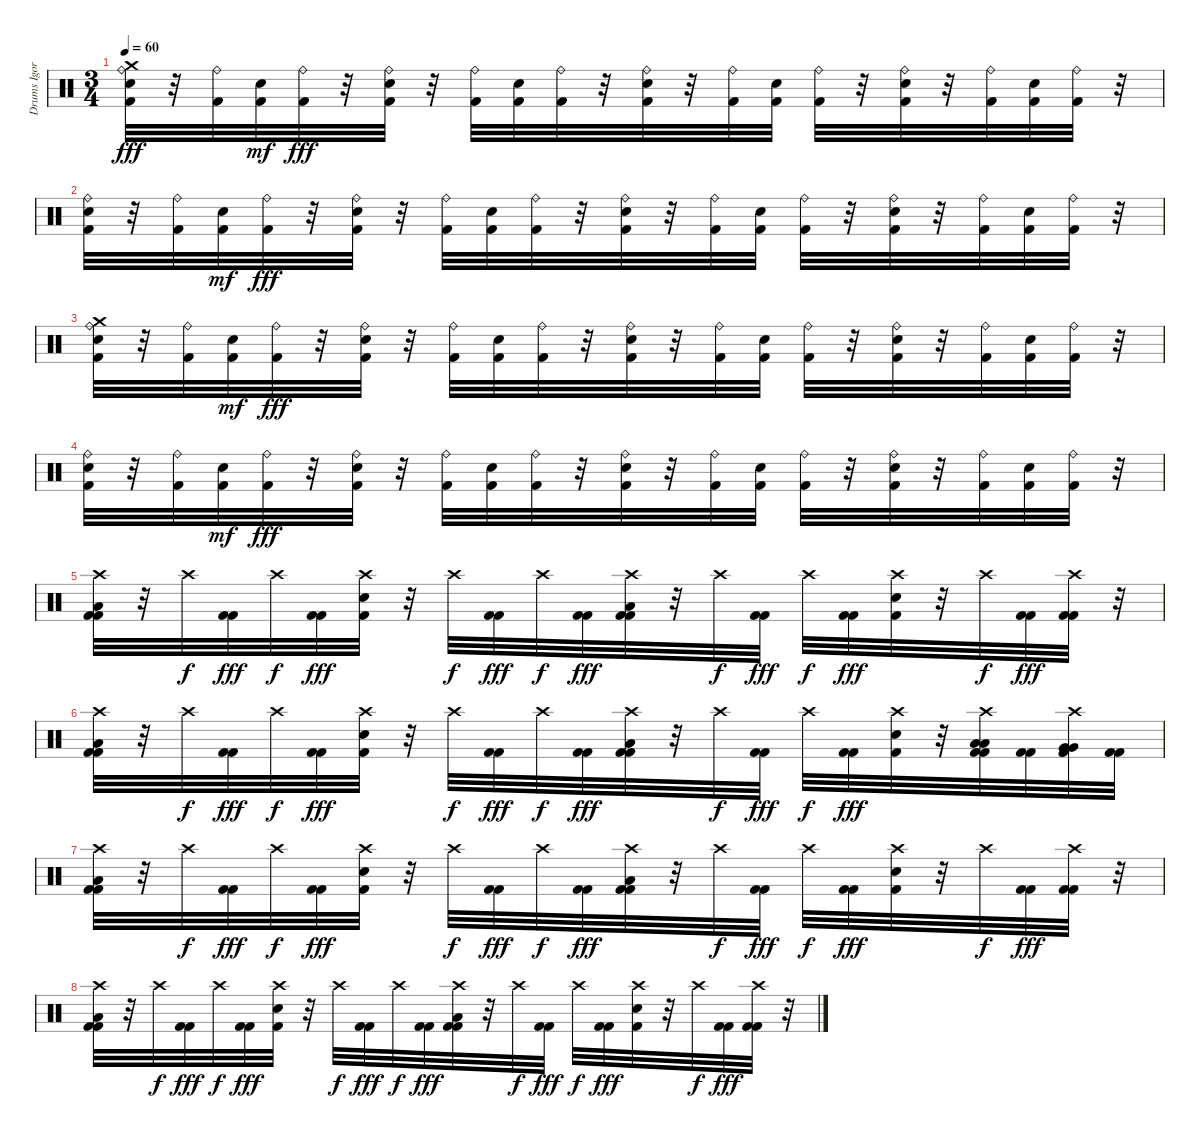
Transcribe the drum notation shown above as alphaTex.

\track ("Drums Igor" "Drums Igor") {instrument percussion}
\staff {score}
\articulation defaults
\ts (3 4)
\tempo 60
\clef neutral
\ks c
("Ride (bell)" "Crash medium (hit)" "Electric Snare (hit)" "Kick (hit) 2").32{dy fff} r.32 ("Ride (bell)" "Kick (hit) 2").32 ("Electric Snare (hit)" "Kick (hit) 2").32{dy mf} ("Ride (bell)" "Kick (hit) 2").32{dy fff} r.32 ("Ride (bell)" "Electric Snare (hit)" "Kick (hit) 2").32 r.32 ("Ride (bell)" "Kick (hit) 2").32 ("Electric Snare (hit)" "Kick (hit) 2").32 ("Ride (bell)" "Kick (hit) 2").32 r.32 ("Ride (bell)" "Electric Snare (hit)" "Kick (hit) 2").32 r.32 ("Ride (bell)" "Kick (hit) 2").32 ("Electric Snare (hit)" "Kick (hit) 2").32 ("Ride (bell)" "Kick (hit) 2").32 r.32 ("Ride (bell)" "Electric Snare (hit)" "Kick (hit) 2").32 r.32 ("Ride (bell)" "Kick (hit) 2").32 ("Electric Snare (hit)" "Kick (hit) 2").32 ("Ride (bell)" "Kick (hit) 2").32 r.32 |
("Ride (bell)" "Electric Snare (hit)" "Kick (hit) 2").32 r.32 ("Ride (bell)" "Kick (hit) 2").32 ("Electric Snare (hit)" "Kick (hit) 2").32{dy mf} ("Ride (bell)" "Kick (hit) 2").32{dy fff} r.32 ("Ride (bell)" "Electric Snare (hit)" "Kick (hit) 2").32 r.32 ("Ride (bell)" "Kick (hit) 2").32 ("Electric Snare (hit)" "Kick (hit) 2").32 ("Ride (bell)" "Kick (hit) 2").32 r.32 ("Ride (bell)" "Electric Snare (hit)" "Kick (hit) 2").32 r.32 ("Ride (bell)" "Kick (hit) 2").32 ("Electric Snare (hit)" "Kick (hit) 2").32 ("Ride (bell)" "Kick (hit) 2").32 r.32 ("Ride (bell)" "Electric Snare (hit)" "Kick (hit) 2").32 r.32 ("Ride (bell)" "Kick (hit) 2").32 ("Electric Snare (hit)" "Kick (hit) 2").32 ("Ride (bell)" "Kick (hit) 2").32 r.32 |
("Ride (bell)" "Crash medium (hit)" "Electric Snare (hit)" "Kick (hit) 2").32 r.32 ("Ride (bell)" "Kick (hit) 2").32 ("Electric Snare (hit)" "Kick (hit) 2").32{dy mf} ("Ride (bell)" "Kick (hit) 2").32{dy fff} r.32 ("Ride (bell)" "Electric Snare (hit)" "Kick (hit) 2").32 r.32 ("Ride (bell)" "Kick (hit) 2").32 ("Electric Snare (hit)" "Kick (hit) 2").32 ("Ride (bell)" "Kick (hit) 2").32 r.32 ("Ride (bell)" "Electric Snare (hit)" "Kick (hit) 2").32 r.32 ("Ride (bell)" "Kick (hit) 2").32 ("Electric Snare (hit)" "Kick (hit) 2").32 ("Ride (bell)" "Kick (hit) 2").32 r.32 ("Ride (bell)" "Electric Snare (hit)" "Kick (hit) 2").32 r.32 ("Ride (bell)" "Kick (hit) 2").32 ("Electric Snare (hit)" "Kick (hit) 2").32 ("Ride (bell)" "Kick (hit) 2").32 r.32 |
("Ride (bell)" "Electric Snare (hit)" "Kick (hit) 2").32 r.32 ("Ride (bell)" "Kick (hit) 2").32 ("Electric Snare (hit)" "Kick (hit) 2").32{dy mf} ("Ride (bell)" "Kick (hit) 2").32{dy fff} r.32 ("Ride (bell)" "Electric Snare (hit)" "Kick (hit) 2").32 r.32 ("Ride (bell)" "Kick (hit) 2").32 ("Electric Snare (hit)" "Kick (hit) 2").32 ("Ride (bell)" "Kick (hit) 2").32 r.32 ("Ride (bell)" "Electric Snare (hit)" "Kick (hit) 2").32 r.32 ("Ride (bell)" "Kick (hit) 2").32 ("Electric Snare (hit)" "Kick (hit) 2").32 ("Ride (bell)" "Kick (hit) 2").32 r.32 ("Ride (bell)" "Electric Snare (hit)" "Kick (hit) 2").32 r.32 ("Ride (bell)" "Kick (hit) 2").32 ("Electric Snare (hit)" "Kick (hit) 2").32 ("Ride (bell)" "Kick (hit) 2").32 r.32 |
("Crash high (hit)" "Low Floor Tom (hit)" "Kick (hit) 2" "Kick (hit) 2").32 r.32 "Crash high (hit)".32{dy f} ("Kick (hit) 2" "Kick (hit) 2").32{dy fff} "Crash high (hit)".32{dy f} ("Kick (hit) 2" "Kick (hit) 2").32{dy fff} ("Crash high (hit)" "Electric Snare (hit)" "Kick (hit) 2").32 r.32 "Crash high (hit)".32{dy f} ("Kick (hit) 2" "Kick (hit) 2").32{dy fff} "Crash high (hit)".32{dy f} ("Kick (hit) 2" "Kick (hit) 2").32{dy fff} ("Crash high (hit)" "Low Floor Tom (hit)" "Kick (hit) 2" "Kick (hit) 2").32 r.32 "Crash high (hit)".32{dy f} ("Kick (hit) 2" "Kick (hit) 2").32{dy fff} "Crash high (hit)".32{dy f} ("Kick (hit) 2" "Kick (hit) 2").32{dy fff} ("Crash high (hit)" "Electric Snare (hit)" "Kick (hit) 2").32 r.32 "Crash high (hit)".32{dy f} ("Kick (hit) 2" "Kick (hit) 2").32{dy fff} ("Crash high (hit)" "Kick (hit) 2" "Kick (hit) 2").32 r.32 |
("Crash high (hit)" "Low Floor Tom (hit)" "Kick (hit) 2" "Kick (hit) 2").32 r.32 "Crash high (hit)".32{dy f} ("Kick (hit) 2" "Kick (hit) 2").32{dy fff} "Crash high (hit)".32{dy f} ("Kick (hit) 2" "Kick (hit) 2").32{dy fff} ("Crash high (hit)" "Electric Snare (hit)" "Kick (hit) 2").32 r.32 "Crash high (hit)".32{dy f} ("Kick (hit) 2" "Kick (hit) 2").32{dy fff} "Crash high (hit)".32{dy f} ("Kick (hit) 2" "Kick (hit) 2").32{dy fff} ("Crash high (hit)" "Low Floor Tom (hit)" "Kick (hit) 2" "Kick (hit) 2").32 r.32 "Crash high (hit)".32{dy f} ("Kick (hit) 2" "Kick (hit) 2").32{dy fff} "Crash high (hit)".32{dy f} ("Kick (hit) 2" "Kick (hit) 2").32{dy fff} ("Crash high (hit)" "Electric Snare (hit)" "Kick (hit) 2").32 r.32 ("Crash high (hit)" "Low Tom (hit)" "Low Tom (hit)" "Kick (hit) 2" "Kick (hit) 2").32 ("Kick (hit) 2" "Kick (hit) 2").32 ("Crash high (hit)" "Very Low Tom (hit)" "Very Low Tom (hit)" "Kick (hit) 2" "Kick (hit) 2").32 ("Kick (hit) 2" "Kick (hit) 2").32 |
("Crash high (hit)" "Low Floor Tom (hit)" "Kick (hit) 2" "Kick (hit) 2").32 r.32 "Crash high (hit)".32{dy f} ("Kick (hit) 2" "Kick (hit) 2").32{dy fff} "Crash high (hit)".32{dy f} ("Kick (hit) 2" "Kick (hit) 2").32{dy fff} ("Crash high (hit)" "Electric Snare (hit)" "Kick (hit) 2").32 r.32 "Crash high (hit)".32{dy f} ("Kick (hit) 2" "Kick (hit) 2").32{dy fff} "Crash high (hit)".32{dy f} ("Kick (hit) 2" "Kick (hit) 2").32{dy fff} ("Crash high (hit)" "Low Floor Tom (hit)" "Kick (hit) 2" "Kick (hit) 2").32 r.32 "Crash high (hit)".32{dy f} ("Kick (hit) 2" "Kick (hit) 2").32{dy fff} "Crash high (hit)".32{dy f} ("Kick (hit) 2" "Kick (hit) 2").32{dy fff} ("Crash high (hit)" "Electric Snare (hit)" "Kick (hit) 2").32 r.32 "Crash high (hit)".32{dy f} ("Kick (hit) 2" "Kick (hit) 2").32{dy fff} ("Crash high (hit)" "Kick (hit) 2" "Kick (hit) 2").32 r.32 |
("Crash high (hit)" "Low Floor Tom (hit)" "Kick (hit) 2" "Kick (hit) 2").32 r.32 "Crash high (hit)".32{dy f} ("Kick (hit) 2" "Kick (hit) 2").32{dy fff} "Crash high (hit)".32{dy f} ("Kick (hit) 2" "Kick (hit) 2").32{dy fff} ("Crash high (hit)" "Electric Snare (hit)" "Kick (hit) 2").32 r.32 "Crash high (hit)".32{dy f} ("Kick (hit) 2" "Kick (hit) 2").32{dy fff} "Crash high (hit)".32{dy f} ("Kick (hit) 2" "Kick (hit) 2").32{dy fff} ("Crash high (hit)" "Low Floor Tom (hit)" "Kick (hit) 2" "Kick (hit) 2").32 r.32 "Crash high (hit)".32{dy f} ("Kick (hit) 2" "Kick (hit) 2").32{dy fff} "Crash high (hit)".32{dy f} ("Kick (hit) 2" "Kick (hit) 2").32{dy fff} ("Crash high (hit)" "Electric Snare (hit)" "Kick (hit) 2").32 r.32 "Crash high (hit)".32{dy f} ("Kick (hit) 2" "Kick (hit) 2").32{dy fff} ("Crash high (hit)" "Kick (hit) 2" "Kick (hit) 2").32 r.32
